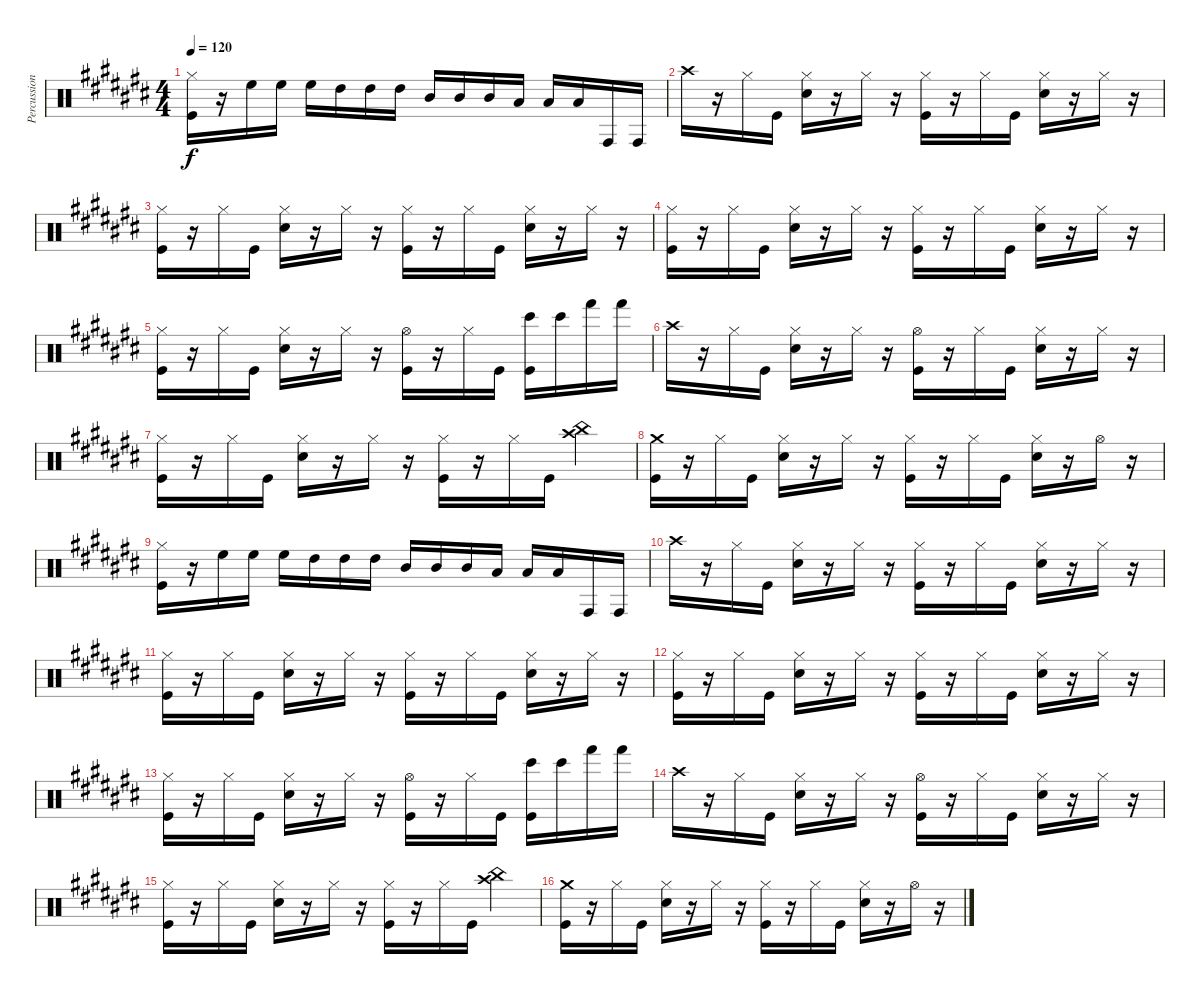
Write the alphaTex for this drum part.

\track ("Percussion" "Percussion") {instrument percussion}
\staff {score}
\articulation defaults
\ts (4 4)
\tempo 120
\clef neutral
\ks c#
("Hi-Hat (closed)" "Kick (hit)").16{dy f} r.16 "High Floor Tom (hit)".16 "High Floor Tom (hit)".16 "High Floor Tom (hit)".16 "High Tom (hit)".16 "High Tom (hit)".16 "High Tom (hit)".16 "Mid Tom (hit)".16 "Mid Tom (hit)".16 "Mid Tom (hit)".16 "Low Tom (hit)".16 "Low Tom (hit)".16 "Low Tom (hit)".16 "Conga high (hit)".16 "Conga high (hit)".16 |
"Crash high (hit)".16 r.16 "Hi-Hat (closed)".16 "Kick (hit)".16 ("Hi-Hat (closed)" "Snare (hit) 2").16 r.16 "Hi-Hat (closed)".16 r.16 ("Hi-Hat (closed)" "Kick (hit)").16 r.16 "Hi-Hat (closed)".16 "Kick (hit)".16 ("Hi-Hat (closed)" "Snare (hit) 2").16 r.16 "Hi-Hat (closed)".16 r.16 |
("Hi-Hat (closed)" "Kick (hit)").16 r.16 "Hi-Hat (closed)".16 "Kick (hit)".16 ("Hi-Hat (closed)" "Snare (hit) 2").16 r.16 "Hi-Hat (closed)".16 r.16 ("Hi-Hat (closed)" "Kick (hit)").16 r.16 "Hi-Hat (closed)".16 "Kick (hit)".16 ("Hi-Hat (closed)" "Snare (hit) 2").16 r.16 "Hi-Hat (closed)".16 r.16 |
("Hi-Hat (closed)" "Kick (hit)").16 r.16 "Hi-Hat (closed)".16 "Kick (hit)".16 ("Hi-Hat (closed)" "Snare (hit) 2").16 r.16 "Hi-Hat (closed)".16 r.16 ("Hi-Hat (closed)" "Kick (hit)").16 r.16 "Hi-Hat (closed)".16 "Kick (hit)".16 ("Hi-Hat (closed)" "Snare (hit) 2").16 r.16 "Hi-Hat (closed)".16 r.16 |
("Hi-Hat (closed)" "Kick (hit)").16 r.16 "Hi-Hat (closed)".16 "Kick (hit)".16 ("Hi-Hat (closed)" "Snare (hit) 2").16 r.16 "Hi-Hat (closed)".16 r.16 ("Hi-Hat (open)" "Kick (hit)").16 r.16 "Hi-Hat (closed)".16 "Kick (hit)".16 ("Bongo High (hit)" "Kick (hit)").16 "Bongo High (hit)".16 "Hand (hit)".16 "Hand (hit)".16 |
"Crash high (hit)".16 r.16 "Hi-Hat (closed)".16 "Kick (hit)".16 ("Hi-Hat (closed)" "Snare (hit) 2").16 r.16 "Hi-Hat (closed)".16 r.16 ("Hi-Hat (open)" "Kick (hit)").16 r.16 "Hi-Hat (closed)".16 "Kick (hit)".16 ("Hi-Hat (closed)" "Snare (hit) 2").16 r.16 "Hi-Hat (closed)".16 r.16 |
("Hi-Hat (closed)" "Kick (hit)").16 r.16 "Hi-Hat (closed)".16 "Kick (hit)".16 ("Hi-Hat (closed)" "Snare (hit) 2").16 r.16 "Hi-Hat (closed)".16 r.16 ("Hi-Hat (closed)" "Kick (hit)").16 r.16 "Hi-Hat (closed)".16 "Kick (hit)".16 ("Crash high (hit)" "China (hit)").4 |
("Crash medium (hit)" "Kick (hit)").16 r.16 "Hi-Hat (closed)".16 "Kick (hit)".16 ("Hi-Hat (closed)" "Snare (hit) 2").16 r.16 "Hi-Hat (closed)".16 r.16 ("Hi-Hat (closed)" "Kick (hit)").16 r.16 "Hi-Hat (closed)".16 "Kick (hit)".16 ("Hi-Hat (closed)" "Snare (hit) 2").16 r.16 "Hi-Hat (open)".16 r.16 |
("Hi-Hat (closed)" "Kick (hit)").16 r.16 "High Floor Tom (hit)".16 "High Floor Tom (hit)".16 "High Floor Tom (hit)".16 "High Tom (hit)".16 "High Tom (hit)".16 "High Tom (hit)".16 "Mid Tom (hit)".16 "Mid Tom (hit)".16 "Mid Tom (hit)".16 "Low Tom (hit)".16 "Low Tom (hit)".16 "Low Tom (hit)".16 "Conga high (hit)".16 "Conga high (hit)".16 |
"Crash high (hit)".16 r.16 "Hi-Hat (closed)".16 "Kick (hit)".16 ("Hi-Hat (closed)" "Snare (hit) 2").16 r.16 "Hi-Hat (closed)".16 r.16 ("Hi-Hat (closed)" "Kick (hit)").16 r.16 "Hi-Hat (closed)".16 "Kick (hit)".16 ("Hi-Hat (closed)" "Snare (hit) 2").16 r.16 "Hi-Hat (closed)".16 r.16 |
("Hi-Hat (closed)" "Kick (hit)").16 r.16 "Hi-Hat (closed)".16 "Kick (hit)".16 ("Hi-Hat (closed)" "Snare (hit) 2").16 r.16 "Hi-Hat (closed)".16 r.16 ("Hi-Hat (closed)" "Kick (hit)").16 r.16 "Hi-Hat (closed)".16 "Kick (hit)".16 ("Hi-Hat (closed)" "Snare (hit) 2").16 r.16 "Hi-Hat (closed)".16 r.16 |
("Hi-Hat (closed)" "Kick (hit)").16 r.16 "Hi-Hat (closed)".16 "Kick (hit)".16 ("Hi-Hat (closed)" "Snare (hit) 2").16 r.16 "Hi-Hat (closed)".16 r.16 ("Hi-Hat (closed)" "Kick (hit)").16 r.16 "Hi-Hat (closed)".16 "Kick (hit)".16 ("Hi-Hat (closed)" "Snare (hit) 2").16 r.16 "Hi-Hat (closed)".16 r.16 |
("Hi-Hat (closed)" "Kick (hit)").16 r.16 "Hi-Hat (closed)".16 "Kick (hit)".16 ("Hi-Hat (closed)" "Snare (hit) 2").16 r.16 "Hi-Hat (closed)".16 r.16 ("Hi-Hat (open)" "Kick (hit)").16 r.16 "Hi-Hat (closed)".16 "Kick (hit)".16 ("Bongo High (hit)" "Kick (hit)").16 "Bongo High (hit)".16 "Hand (hit)".16 "Hand (hit)".16 |
"Crash high (hit)".16 r.16 "Hi-Hat (closed)".16 "Kick (hit)".16 ("Hi-Hat (closed)" "Snare (hit) 2").16 r.16 "Hi-Hat (closed)".16 r.16 ("Hi-Hat (open)" "Kick (hit)").16 r.16 "Hi-Hat (closed)".16 "Kick (hit)".16 ("Hi-Hat (closed)" "Snare (hit) 2").16 r.16 "Hi-Hat (closed)".16 r.16 |
("Hi-Hat (closed)" "Kick (hit)").16 r.16 "Hi-Hat (closed)".16 "Kick (hit)".16 ("Hi-Hat (closed)" "Snare (hit) 2").16 r.16 "Hi-Hat (closed)".16 r.16 ("Hi-Hat (closed)" "Kick (hit)").16 r.16 "Hi-Hat (closed)".16 "Kick (hit)".16 ("Crash high (hit)" "China (hit)").4 |
("Crash medium (hit)" "Kick (hit)").16 r.16 "Hi-Hat (closed)".16 "Kick (hit)".16 ("Hi-Hat (closed)" "Snare (hit) 2").16 r.16 "Hi-Hat (closed)".16 r.16 ("Hi-Hat (closed)" "Kick (hit)").16 r.16 "Hi-Hat (closed)".16 "Kick (hit)".16 ("Hi-Hat (closed)" "Snare (hit) 2").16 r.16 "Hi-Hat (open)".16 r.16
